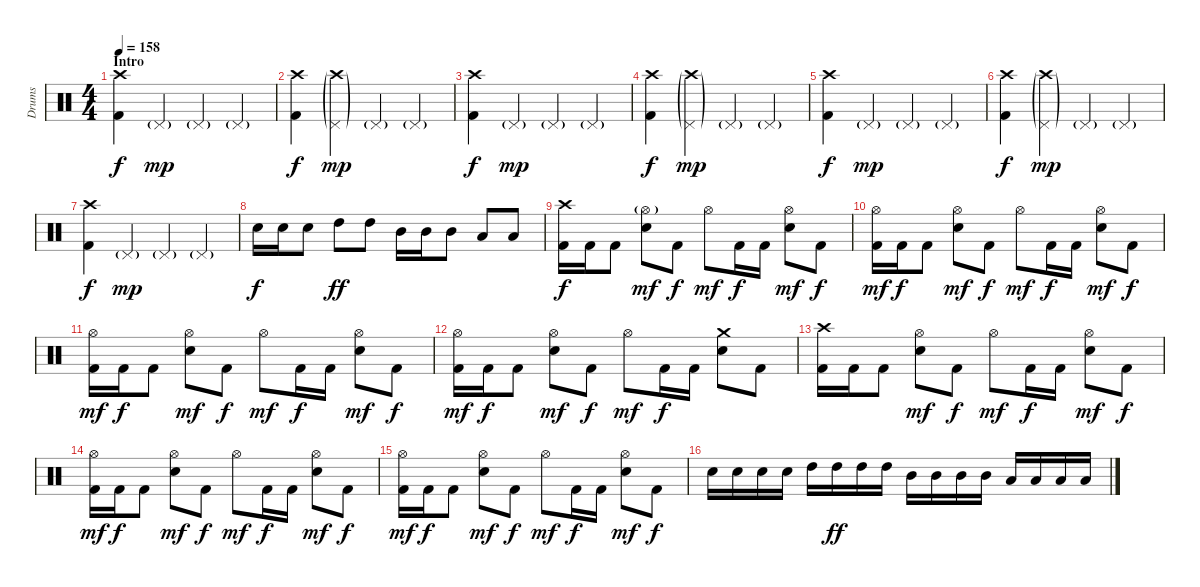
\track ("Drums" "Drums") {instrument percussion}
\staff {score}
\articulation defaults
\ts (4 4)
\section ("" "Intro")
\tempo 158
\clef neutral
\ks c
("Crash high (hit)" "Kick (hit) 2").4{dy f} "Pedal Hi-Hat (hit)"{g}.4{dy mp} "Pedal Hi-Hat (hit)"{g}.4 "Pedal Hi-Hat (hit)"{g}.4 |
("Crash high (hit)" "Kick (hit) 2").4{dy f} ("Crash high (hit)"{g} "Pedal Hi-Hat (hit)"{g}).4{dy mp} "Pedal Hi-Hat (hit)"{g}.4 "Pedal Hi-Hat (hit)"{g}.4 |
("Crash high (hit)" "Kick (hit) 2").4{dy f} "Pedal Hi-Hat (hit)"{g}.4{dy mp} "Pedal Hi-Hat (hit)"{g}.4 "Pedal Hi-Hat (hit)"{g}.4 |
("Crash high (hit)" "Kick (hit) 2").4{dy f} ("Crash high (hit)"{g} "Pedal Hi-Hat (hit)"{g}).4{dy mp} "Pedal Hi-Hat (hit)"{g}.4 "Pedal Hi-Hat (hit)"{g}.4 |
("Crash high (hit)" "Kick (hit) 2").4{dy f} "Pedal Hi-Hat (hit)"{g}.4{dy mp} "Pedal Hi-Hat (hit)"{g}.4 "Pedal Hi-Hat (hit)"{g}.4 |
("Crash high (hit)" "Kick (hit) 2").4{dy f} ("Crash high (hit)"{g} "Pedal Hi-Hat (hit)"{g}).4{dy mp} "Pedal Hi-Hat (hit)"{g}.4 "Pedal Hi-Hat (hit)"{g}.4 |
("Crash high (hit)" "Kick (hit) 2").4{dy f} "Pedal Hi-Hat (hit)"{g}.4{dy mp} "Pedal Hi-Hat (hit)"{g}.4 "Pedal Hi-Hat (hit)"{g}.4 |
"Electric Snare (hit)".16{dy f} "Electric Snare (hit)".16 "Electric Snare (hit)".8 "High Tom (hit)".8{dy ff} "High Tom (hit)".8 "Mid Tom (hit)".16 "Mid Tom (hit)".16 "Mid Tom (hit)".8 "Low Tom (hit)".8 "Low Tom (hit)".8 |
("Crash high (hit)" "Kick (hit) 2").16{dy f} "Kick (hit) 2".16 "Kick (hit) 2".8 ("Hi-Hat (open)"{g} "Electric Snare (hit)").8{dy mf} "Kick (hit) 2".8{dy f} "Hi-Hat (open)".8{dy mf} "Kick (hit) 2".16{dy f} "Kick (hit) 2".16 ("Hi-Hat (open)" "Electric Snare (hit)").8{dy mf} "Kick (hit) 2".8{dy f} |
("Hi-Hat (open)" "Kick (hit) 2").16{dy mf} "Kick (hit) 2".16{dy f} "Kick (hit) 2".8 ("Hi-Hat (open)" "Electric Snare (hit)").8{dy mf} "Kick (hit) 2".8{dy f} "Hi-Hat (open)".8{dy mf} "Kick (hit) 2".16{dy f} "Kick (hit) 2".16 ("Hi-Hat (open)" "Electric Snare (hit)").8{dy mf} "Kick (hit) 2".8{dy f} |
("Hi-Hat (open)" "Kick (hit) 2").16{dy mf} "Kick (hit) 2".16{dy f} "Kick (hit) 2".8 ("Hi-Hat (open)" "Electric Snare (hit)").8{dy mf} "Kick (hit) 2".8{dy f} "Hi-Hat (open)".8{dy mf} "Kick (hit) 2".16{dy f} "Kick (hit) 2".16 ("Hi-Hat (open)" "Electric Snare (hit)").8{dy mf} "Kick (hit) 2".8{dy f} |
("Hi-Hat (open)" "Kick (hit) 2").16{dy mf} "Kick (hit) 2".16{dy f} "Kick (hit) 2".8 ("Hi-Hat (open)" "Electric Snare (hit)").8{dy mf} "Kick (hit) 2".8{dy f} "Hi-Hat (open)".8{dy mf} "Kick (hit) 2".16{dy f} "Kick (hit) 2".16 ("Crash medium (hit)" "Electric Snare (hit)").8 "Kick (hit) 2".8 |
("Crash high (hit)" "Kick (hit) 2").16 "Kick (hit) 2".16 "Kick (hit) 2".8 ("Hi-Hat (open)" "Electric Snare (hit)").8{dy mf} "Kick (hit) 2".8{dy f} "Hi-Hat (open)".8{dy mf} "Kick (hit) 2".16{dy f} "Kick (hit) 2".16 ("Hi-Hat (open)" "Electric Snare (hit)").8{dy mf} "Kick (hit) 2".8{dy f} |
("Hi-Hat (open)" "Kick (hit) 2").16{dy mf} "Kick (hit) 2".16{dy f} "Kick (hit) 2".8 ("Hi-Hat (open)" "Electric Snare (hit)").8{dy mf} "Kick (hit) 2".8{dy f} "Hi-Hat (open)".8{dy mf} "Kick (hit) 2".16{dy f} "Kick (hit) 2".16 ("Hi-Hat (open)" "Electric Snare (hit)").8{dy mf} "Kick (hit) 2".8{dy f} |
("Hi-Hat (open)" "Kick (hit) 2").16{dy mf} "Kick (hit) 2".16{dy f} "Kick (hit) 2".8 ("Hi-Hat (open)" "Electric Snare (hit)").8{dy mf} "Kick (hit) 2".8{dy f} "Hi-Hat (open)".8{dy mf} "Kick (hit) 2".16{dy f} "Kick (hit) 2".16 ("Hi-Hat (open)" "Electric Snare (hit)").8{dy mf} "Kick (hit) 2".8{dy f} |
"Electric Snare (hit)".16 "Electric Snare (hit)".16 "Electric Snare (hit)".16 "Electric Snare (hit)".16 "High Tom (hit)".16 "High Tom (hit)".16{dy ff} "High Tom (hit)".16 "High Tom (hit)".16 "Mid Tom (hit)".16 "Mid Tom (hit)".16 "Mid Tom (hit)".16 "Mid Tom (hit)".16 "Low Tom (hit)".16 "Low Tom (hit)".16 "Low Tom (hit)".16 "Low Tom (hit)".16
